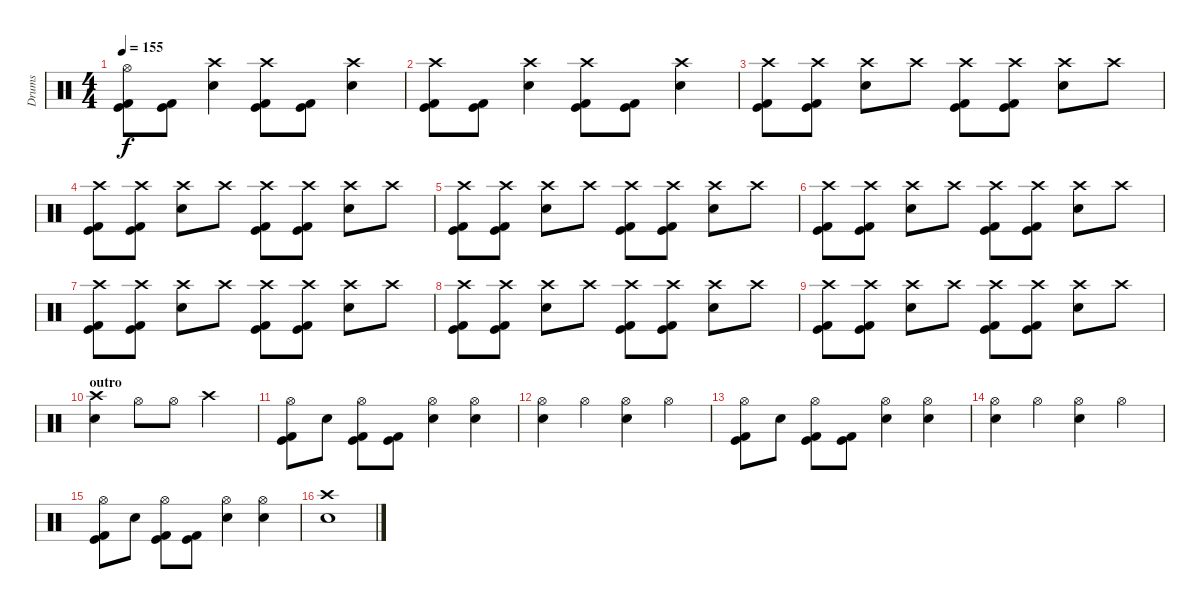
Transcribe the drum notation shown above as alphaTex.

\track ("Drums" "Drums") {instrument percussion}
\staff {score}
\articulation defaults
\ts (4 4)
\tempo 155
\clef neutral
\ks c
("Hi-Hat (open)" "Kick (hit)" "Kick (hit) 2").8{dy f} ("Kick (hit)" "Kick (hit) 2").8 ("Crash high (hit)" "Electric Snare (hit)").4 ("Crash high (hit)" "Kick (hit)" "Kick (hit) 2").8 ("Kick (hit)" "Kick (hit) 2").8 ("Crash high (hit)" "Electric Snare (hit)").4 |
("Crash high (hit)" "Kick (hit)" "Kick (hit) 2").8 ("Kick (hit)" "Kick (hit) 2").8 ("Crash high (hit)" "Electric Snare (hit)").4 ("Crash high (hit)" "Kick (hit)" "Kick (hit) 2").8 ("Kick (hit)" "Kick (hit) 2").8 ("Crash high (hit)" "Electric Snare (hit)").4 |
("Crash high (hit)" "Kick (hit)" "Kick (hit) 2").8 ("Crash high (hit)" "Kick (hit)" "Kick (hit) 2").8 ("Crash high (hit)" "Electric Snare (hit)").8 "Crash high (hit)".8 ("Crash high (hit)" "Kick (hit)" "Kick (hit) 2").8 ("Crash high (hit)" "Kick (hit)" "Kick (hit) 2").8 ("Crash high (hit)" "Electric Snare (hit)").8 "Crash high (hit)".8 |
("Crash high (hit)" "Kick (hit)" "Kick (hit) 2").8 ("Crash high (hit)" "Kick (hit)" "Kick (hit) 2").8 ("Crash high (hit)" "Electric Snare (hit)").8 "Crash high (hit)".8 ("Crash high (hit)" "Kick (hit)" "Kick (hit) 2").8 ("Crash high (hit)" "Kick (hit)" "Kick (hit) 2").8 ("Crash high (hit)" "Electric Snare (hit)").8 "Crash high (hit)".8 |
("Crash high (hit)" "Kick (hit)" "Kick (hit) 2").8 ("Crash high (hit)" "Kick (hit)" "Kick (hit) 2").8 ("Crash high (hit)" "Electric Snare (hit)").8 "Crash high (hit)".8 ("Crash high (hit)" "Kick (hit)" "Kick (hit) 2").8 ("Crash high (hit)" "Kick (hit)" "Kick (hit) 2").8 ("Crash high (hit)" "Electric Snare (hit)").8 "Crash high (hit)".8 |
("Crash high (hit)" "Kick (hit)" "Kick (hit) 2").8 ("Crash high (hit)" "Kick (hit)" "Kick (hit) 2").8 ("Crash high (hit)" "Electric Snare (hit)").8 "Crash high (hit)".8 ("Crash high (hit)" "Kick (hit)" "Kick (hit) 2").8 ("Crash high (hit)" "Kick (hit)" "Kick (hit) 2").8 ("Crash high (hit)" "Electric Snare (hit)").8 "Crash high (hit)".8 |
("Crash high (hit)" "Kick (hit)" "Kick (hit) 2").8 ("Crash high (hit)" "Kick (hit)" "Kick (hit) 2").8 ("Crash high (hit)" "Electric Snare (hit)").8 "Crash high (hit)".8 ("Crash high (hit)" "Kick (hit)" "Kick (hit) 2").8 ("Crash high (hit)" "Kick (hit)" "Kick (hit) 2").8 ("Crash high (hit)" "Electric Snare (hit)").8 "Crash high (hit)".8 |
("Crash high (hit)" "Kick (hit)" "Kick (hit) 2").8 ("Crash high (hit)" "Kick (hit)" "Kick (hit) 2").8 ("Crash high (hit)" "Electric Snare (hit)").8 "Crash high (hit)".8 ("Crash high (hit)" "Kick (hit)" "Kick (hit) 2").8 ("Crash high (hit)" "Kick (hit)" "Kick (hit) 2").8 ("Crash high (hit)" "Electric Snare (hit)").8 "Crash high (hit)".8 |
("Crash high (hit)" "Kick (hit)" "Kick (hit) 2").8 ("Crash high (hit)" "Kick (hit)" "Kick (hit) 2").8 ("Crash high (hit)" "Electric Snare (hit)").8 "Crash high (hit)".8 ("Crash high (hit)" "Kick (hit)" "Kick (hit) 2").8 ("Crash high (hit)" "Kick (hit)" "Kick (hit) 2").8 ("Crash high (hit)" "Electric Snare (hit)").8 "Crash high (hit)".8 |
\section ("" "outro")
("Crash high (hit)" "Electric Snare (hit)").4 "Hi-Hat (open)".8 "Hi-Hat (open)".8 "Crash high (hit)".2 |
("Hi-Hat (open)" "Kick (hit)" "Kick (hit) 2").8 "Electric Snare (hit)".8 ("Hi-Hat (open)" "Kick (hit)" "Kick (hit) 2").8 ("Kick (hit)" "Kick (hit) 2").8 ("Hi-Hat (open)" "Electric Snare (hit)").4 ("Hi-Hat (open)" "Electric Snare (hit)").4 |
("Hi-Hat (open)" "Electric Snare (hit)").4 "Hi-Hat (open)".4 ("Hi-Hat (open)" "Electric Snare (hit)").4 "Hi-Hat (open)".4 |
("Hi-Hat (open)" "Kick (hit)" "Kick (hit) 2").8 "Electric Snare (hit)".8 ("Hi-Hat (open)" "Kick (hit)" "Kick (hit) 2").8 ("Kick (hit)" "Kick (hit) 2").8 ("Hi-Hat (open)" "Electric Snare (hit)").4 ("Hi-Hat (open)" "Electric Snare (hit)").4 |
("Hi-Hat (open)" "Electric Snare (hit)").4 "Hi-Hat (open)".4 ("Hi-Hat (open)" "Electric Snare (hit)").4 "Hi-Hat (open)".4 |
("Hi-Hat (open)" "Kick (hit)" "Kick (hit) 2").8 "Electric Snare (hit)".8 ("Hi-Hat (open)" "Kick (hit)" "Kick (hit) 2").8 ("Kick (hit)" "Kick (hit) 2").8 ("Hi-Hat (open)" "Electric Snare (hit)").4 ("Hi-Hat (open)" "Electric Snare (hit)").4 |
("Crash high (hit)" "Electric Snare (hit)").1
